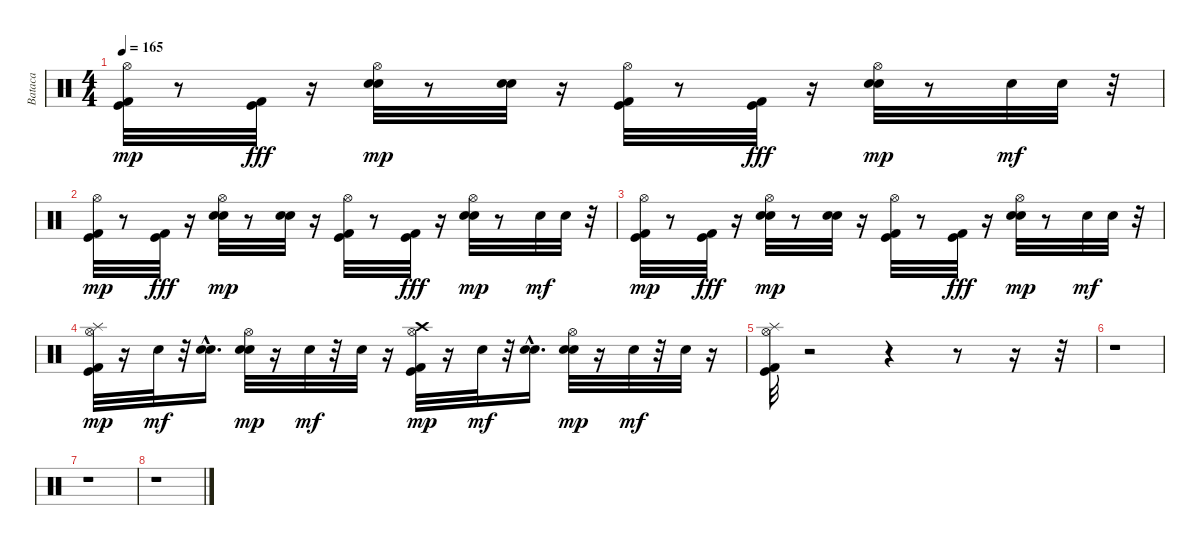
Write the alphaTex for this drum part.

\track ("Bataca" "Bataca") {instrument percussion}
\staff {score}
\articulation defaults
\ts (4 4)
\tempo 165
\clef neutral
\ks c
("Kick (hit) 2" "Kick (hit)" "Hi-Hat (open)").32{dy mp} r.8 ("Kick (hit) 2" "Kick (hit)").32{dy fff} r.16 ("Snare (hit) 2" "Hand Clap (hit)" "Hi-Hat (open)").32{dy mp} r.8 ("Snare (hit) 2" "Hand Clap (hit)").32 r.16 ("Kick (hit) 2" "Kick (hit)" "Hi-Hat (open)").32 r.8 ("Kick (hit) 2" "Kick (hit)").32{dy fff} r.16 ("Snare (hit) 2" "Hand Clap (hit)" "Hi-Hat (open)").32{dy mp} r.8 "Snare (hit) 2".32{dy mf} "Hand Clap (hit)".32 r.32 |
("Kick (hit) 2" "Kick (hit)" "Hi-Hat (open)").32{dy mp} r.8 ("Kick (hit) 2" "Kick (hit)").32{dy fff} r.16 ("Snare (hit) 2" "Hand Clap (hit)" "Hi-Hat (open)").32{dy mp} r.8 ("Snare (hit) 2" "Hand Clap (hit)").32 r.16 ("Kick (hit) 2" "Kick (hit)" "Hi-Hat (open)").32 r.8 ("Kick (hit) 2" "Kick (hit)").32{dy fff} r.16 ("Snare (hit) 2" "Hand Clap (hit)" "Hi-Hat (open)").32{dy mp} r.8 "Snare (hit) 2".32{dy mf} "Hand Clap (hit)".32 r.32 |
("Kick (hit) 2" "Kick (hit)" "Hi-Hat (open)").32{dy mp} r.8 ("Kick (hit) 2" "Kick (hit)").32{dy fff} r.16 ("Snare (hit) 2" "Hand Clap (hit)" "Hi-Hat (open)").32{dy mp} r.8 ("Snare (hit) 2" "Hand Clap (hit)").32 r.16 ("Kick (hit) 2" "Kick (hit)" "Hi-Hat (open)").32 r.8 ("Kick (hit) 2" "Kick (hit)").32{dy fff} r.16 ("Snare (hit) 2" "Hand Clap (hit)" "Hi-Hat (open)").32{dy mp} r.8 "Snare (hit) 2".32{dy mf} "Hand Clap (hit)".32 r.32 |
("Kick (hit) 2" "Kick (hit)" "Splash (hit)" "Hi-Hat (open)").32{dy mp} r.16 "Snare (hit) 2".32{dy mf} r.32 ("Snare (hit) 2"{hac} "Snare (hit) 2").16{d} ("Snare (hit) 2" "Hand Clap (hit)" "Hi-Hat (open)").32{dy mp} r.16 "Snare (hit) 2".32{dy mf} r.32 "Snare (hit) 2".32 r.16 ("Kick (hit) 2" "Kick (hit)" "Crash high (hit)" "Hi-Hat (open)").32{dy mp} r.16 "Snare (hit) 2".32{dy mf} r.32 ("Snare (hit) 2"{hac} "Snare (hit) 2").16{d} ("Hand Clap (hit)" "Snare (hit) 2" "Hi-Hat (open)").32{dy mp} r.16 "Snare (hit) 2".32{dy mf} r.32 "Snare (hit) 2".32 r.16 |
("Kick (hit) 2" "Kick (hit)" "Hi-Hat (open)" "Splash (hit)").32 r.2 r.4 r.8 r.16 r.32 |
r.1 |
r.1 |
r.1
